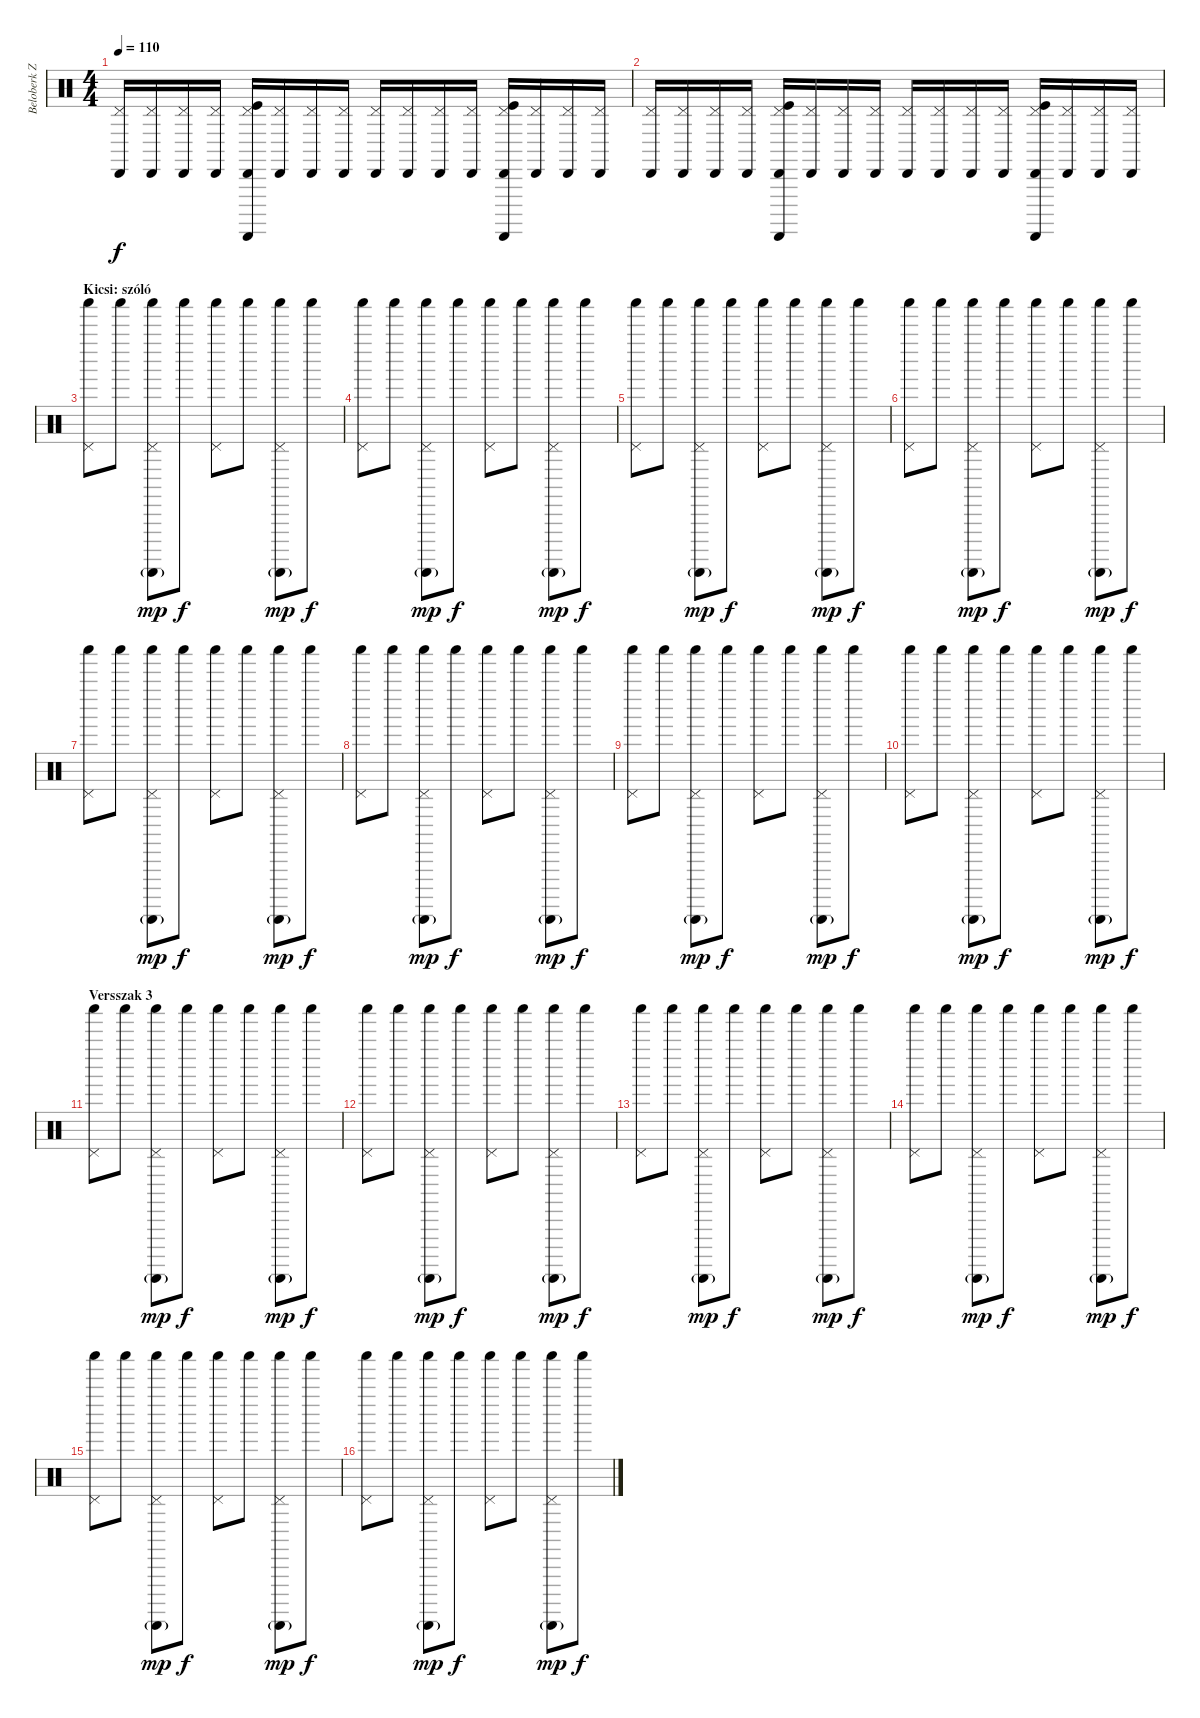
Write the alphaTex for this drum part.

\track ("Beloberk Zsolt" "Beloberk Z") {instrument percussion}
\staff {score}
\articulation defaults
\ts (4 4)
\tempo 110
\clef neutral
\ks c
("Cabasa (hit)" "Pedal Hi-Hat (hit)").16{dy f} ("Cabasa (hit)" "Pedal Hi-Hat (hit)").16 ("Cabasa (hit)" "Pedal Hi-Hat (hit)").16 ("Cabasa (hit)" "Pedal Hi-Hat (hit)").16 ("Cabasa (hit)" "Guiro (scrap-return)" "Pedal Hi-Hat (hit)" "Kick (hit)").16 ("Cabasa (hit)" "Pedal Hi-Hat (hit)").16 ("Cabasa (hit)" "Pedal Hi-Hat (hit)").16 ("Cabasa (hit)" "Pedal Hi-Hat (hit)").16 ("Cabasa (hit)" "Pedal Hi-Hat (hit)").16 ("Cabasa (hit)" "Pedal Hi-Hat (hit)").16 ("Cabasa (hit)" "Pedal Hi-Hat (hit)").16 ("Cabasa (hit)" "Pedal Hi-Hat (hit)").16 ("Cabasa (hit)" "Guiro (scrap-return)" "Pedal Hi-Hat (hit)" "Kick (hit)").16 ("Cabasa (hit)" "Pedal Hi-Hat (hit)").16 ("Cabasa (hit)" "Pedal Hi-Hat (hit)").16 ("Cabasa (hit)" "Pedal Hi-Hat (hit)").16 |
("Cabasa (hit)" "Pedal Hi-Hat (hit)").16 ("Cabasa (hit)" "Pedal Hi-Hat (hit)").16 ("Cabasa (hit)" "Pedal Hi-Hat (hit)").16 ("Cabasa (hit)" "Pedal Hi-Hat (hit)").16 ("Cabasa (hit)" "Guiro (scrap-return)" "Pedal Hi-Hat (hit)" "Kick (hit)").16 ("Cabasa (hit)" "Pedal Hi-Hat (hit)").16 ("Cabasa (hit)" "Pedal Hi-Hat (hit)").16 ("Cabasa (hit)" "Pedal Hi-Hat (hit)").16 ("Cabasa (hit)" "Pedal Hi-Hat (hit)").16 ("Cabasa (hit)" "Pedal Hi-Hat (hit)").16 ("Cabasa (hit)" "Pedal Hi-Hat (hit)").16 ("Cabasa (hit)" "Pedal Hi-Hat (hit)").16 ("Cabasa (hit)" "Guiro (scrap-return)" "Pedal Hi-Hat (hit)" "Kick (hit)").16 ("Cabasa (hit)" "Pedal Hi-Hat (hit)").16 ("Cabasa (hit)" "Pedal Hi-Hat (hit)").16 ("Cabasa (hit)" "Pedal Hi-Hat (hit)").16 |
\section ("" "Kicsi: szóló")
("Shaker (hit)" "Pedal Hi-Hat (hit)").8 "Shaker (hit)".8 ("Shaker (hit)" "Guiro (scrap-return)"{g} "Pedal Hi-Hat (hit)").8{dy mp} "Shaker (hit)".8{dy f} ("Shaker (hit)" "Pedal Hi-Hat (hit)").8 "Shaker (hit)".8 ("Shaker (hit)" "Guiro (scrap-return)"{g} "Pedal Hi-Hat (hit)").8{dy mp} "Shaker (hit)".8{dy f} |
("Shaker (hit)" "Pedal Hi-Hat (hit)").8 "Shaker (hit)".8 ("Shaker (hit)" "Guiro (scrap-return)"{g} "Pedal Hi-Hat (hit)").8{dy mp} "Shaker (hit)".8{dy f} ("Shaker (hit)" "Pedal Hi-Hat (hit)").8 "Shaker (hit)".8 ("Shaker (hit)" "Guiro (scrap-return)"{g} "Pedal Hi-Hat (hit)").8{dy mp} "Shaker (hit)".8{dy f} |
("Shaker (hit)" "Pedal Hi-Hat (hit)").8 "Shaker (hit)".8 ("Shaker (hit)" "Guiro (scrap-return)"{g} "Pedal Hi-Hat (hit)").8{dy mp} "Shaker (hit)".8{dy f} ("Shaker (hit)" "Pedal Hi-Hat (hit)").8 "Shaker (hit)".8 ("Shaker (hit)" "Guiro (scrap-return)"{g} "Pedal Hi-Hat (hit)").8{dy mp} "Shaker (hit)".8{dy f} |
("Shaker (hit)" "Pedal Hi-Hat (hit)").8 "Shaker (hit)".8 ("Shaker (hit)" "Guiro (scrap-return)"{g} "Pedal Hi-Hat (hit)").8{dy mp} "Shaker (hit)".8{dy f} ("Shaker (hit)" "Pedal Hi-Hat (hit)").8 "Shaker (hit)".8 ("Shaker (hit)" "Guiro (scrap-return)"{g} "Pedal Hi-Hat (hit)").8{dy mp} "Shaker (hit)".8{dy f} |
("Shaker (hit)" "Pedal Hi-Hat (hit)").8 "Shaker (hit)".8 ("Shaker (hit)" "Guiro (scrap-return)"{g} "Pedal Hi-Hat (hit)").8{dy mp} "Shaker (hit)".8{dy f} ("Shaker (hit)" "Pedal Hi-Hat (hit)").8 "Shaker (hit)".8 ("Shaker (hit)" "Guiro (scrap-return)"{g} "Pedal Hi-Hat (hit)").8{dy mp} "Shaker (hit)".8{dy f} |
("Shaker (hit)" "Pedal Hi-Hat (hit)").8 "Shaker (hit)".8 ("Shaker (hit)" "Guiro (scrap-return)"{g} "Pedal Hi-Hat (hit)").8{dy mp} "Shaker (hit)".8{dy f} ("Shaker (hit)" "Pedal Hi-Hat (hit)").8 "Shaker (hit)".8 ("Shaker (hit)" "Guiro (scrap-return)"{g} "Pedal Hi-Hat (hit)").8{dy mp} "Shaker (hit)".8{dy f} |
("Shaker (hit)" "Pedal Hi-Hat (hit)").8 "Shaker (hit)".8 ("Shaker (hit)" "Guiro (scrap-return)"{g} "Pedal Hi-Hat (hit)").8{dy mp} "Shaker (hit)".8{dy f} ("Shaker (hit)" "Pedal Hi-Hat (hit)").8 "Shaker (hit)".8 ("Shaker (hit)" "Guiro (scrap-return)"{g} "Pedal Hi-Hat (hit)").8{dy mp} "Shaker (hit)".8{dy f} |
("Shaker (hit)" "Pedal Hi-Hat (hit)").8 "Shaker (hit)".8 ("Shaker (hit)" "Guiro (scrap-return)"{g} "Pedal Hi-Hat (hit)").8{dy mp} "Shaker (hit)".8{dy f} ("Shaker (hit)" "Pedal Hi-Hat (hit)").8 "Shaker (hit)".8 ("Shaker (hit)" "Guiro (scrap-return)"{g} "Pedal Hi-Hat (hit)").8{dy mp} "Shaker (hit)".8{dy f} |
\section ("" "Versszak 3")
("Shaker (hit)" "Pedal Hi-Hat (hit)").8 "Shaker (hit)".8 ("Shaker (hit)" "Guiro (scrap-return)"{g} "Pedal Hi-Hat (hit)").8{dy mp} "Shaker (hit)".8{dy f} ("Shaker (hit)" "Pedal Hi-Hat (hit)").8 "Shaker (hit)".8 ("Shaker (hit)" "Guiro (scrap-return)"{g} "Pedal Hi-Hat (hit)").8{dy mp} "Shaker (hit)".8{dy f} |
("Shaker (hit)" "Pedal Hi-Hat (hit)").8 "Shaker (hit)".8 ("Shaker (hit)" "Guiro (scrap-return)"{g} "Pedal Hi-Hat (hit)").8{dy mp} "Shaker (hit)".8{dy f} ("Shaker (hit)" "Pedal Hi-Hat (hit)").8 "Shaker (hit)".8 ("Shaker (hit)" "Guiro (scrap-return)"{g} "Pedal Hi-Hat (hit)").8{dy mp} "Shaker (hit)".8{dy f} |
("Shaker (hit)" "Pedal Hi-Hat (hit)").8 "Shaker (hit)".8 ("Shaker (hit)" "Guiro (scrap-return)"{g} "Pedal Hi-Hat (hit)").8{dy mp} "Shaker (hit)".8{dy f} ("Shaker (hit)" "Pedal Hi-Hat (hit)").8 "Shaker (hit)".8 ("Shaker (hit)" "Guiro (scrap-return)"{g} "Pedal Hi-Hat (hit)").8{dy mp} "Shaker (hit)".8{dy f} |
("Shaker (hit)" "Pedal Hi-Hat (hit)").8 "Shaker (hit)".8 ("Shaker (hit)" "Guiro (scrap-return)"{g} "Pedal Hi-Hat (hit)").8{dy mp} "Shaker (hit)".8{dy f} ("Shaker (hit)" "Pedal Hi-Hat (hit)").8 "Shaker (hit)".8 ("Shaker (hit)" "Guiro (scrap-return)"{g} "Pedal Hi-Hat (hit)").8{dy mp} "Shaker (hit)".8{dy f} |
("Shaker (hit)" "Pedal Hi-Hat (hit)").8 "Shaker (hit)".8 ("Shaker (hit)" "Guiro (scrap-return)"{g} "Pedal Hi-Hat (hit)").8{dy mp} "Shaker (hit)".8{dy f} ("Shaker (hit)" "Pedal Hi-Hat (hit)").8 "Shaker (hit)".8 ("Shaker (hit)" "Guiro (scrap-return)"{g} "Pedal Hi-Hat (hit)").8{dy mp} "Shaker (hit)".8{dy f} |
("Shaker (hit)" "Pedal Hi-Hat (hit)").8 "Shaker (hit)".8 ("Shaker (hit)" "Guiro (scrap-return)"{g} "Pedal Hi-Hat (hit)").8{dy mp} "Shaker (hit)".8{dy f} ("Shaker (hit)" "Pedal Hi-Hat (hit)").8 "Shaker (hit)".8 ("Shaker (hit)" "Guiro (scrap-return)"{g} "Pedal Hi-Hat (hit)").8{dy mp} "Shaker (hit)".8{dy f}
